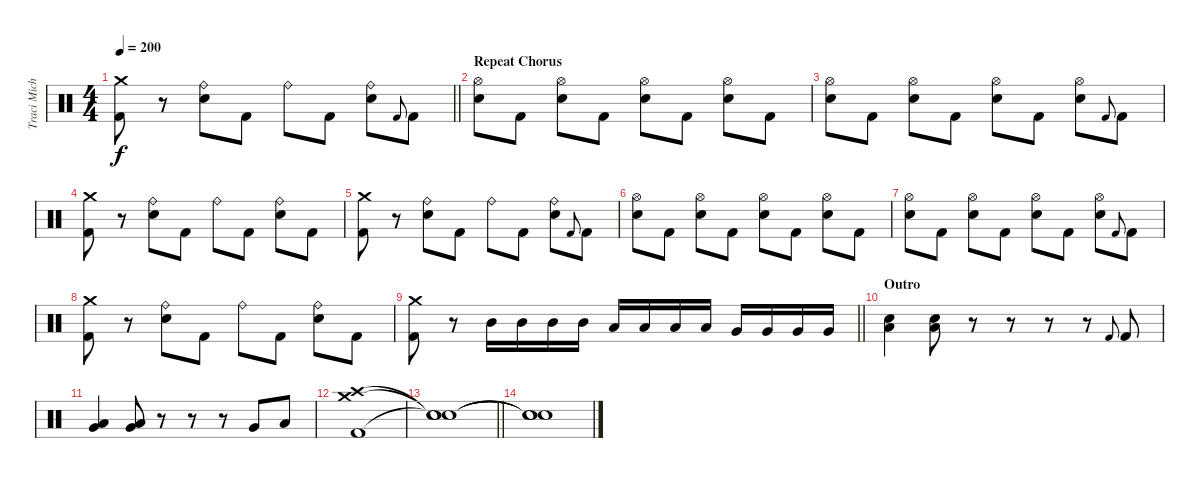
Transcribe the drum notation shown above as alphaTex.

\track ("Traci Michaelz" "Traci Mich") {instrument percussion}
\staff {score}
\articulation defaults
\ts (4 4)
\tempo 200
\clef neutral
\barLineRight lightlight
\ks c
("Crash medium (hit)" "Kick (hit) 2").8{dy f} r.8 ("Ride (bell)" "Snare (hit) 2").8 "Kick (hit) 2".8 "Ride (bell)".8 "Kick (hit) 2".8 ("Ride (bell)" "Snare (hit) 2").8 "Kick (hit) 2".8{gr onbeat} "Kick (hit) 2".8 |
\section ("" "Repeat Chorus")
("Hi-Hat (open)" "Snare (hit) 2").8 "Kick (hit) 2".8 ("Hi-Hat (open)" "Snare (hit) 2").8 "Kick (hit) 2".8 ("Hi-Hat (open)" "Snare (hit) 2").8 "Kick (hit) 2".8 ("Hi-Hat (open)" "Snare (hit) 2").8 "Kick (hit) 2".8 |
("Hi-Hat (open)" "Snare (hit) 2").8 "Kick (hit) 2".8 ("Hi-Hat (open)" "Snare (hit) 2").8 "Kick (hit) 2".8 ("Hi-Hat (open)" "Snare (hit) 2").8 "Kick (hit) 2".8 ("Hi-Hat (open)" "Snare (hit) 2").8 "Kick (hit) 2".8{gr onbeat} "Kick (hit) 2".8 |
("Crash medium (hit)" "Kick (hit) 2").8 r.8 ("Ride (bell)" "Snare (hit) 2").8 "Kick (hit) 2".8 "Ride (bell)".8 "Kick (hit) 2".8 ("Ride (bell)" "Snare (hit) 2").8 "Kick (hit) 2".8 |
("Crash medium (hit)" "Kick (hit) 2").8 r.8 ("Ride (bell)" "Snare (hit) 2").8 "Kick (hit) 2".8 "Ride (bell)".8 "Kick (hit) 2".8 ("Ride (bell)" "Snare (hit) 2").8 "Kick (hit) 2".8{gr onbeat} "Kick (hit) 2".8 |
("Hi-Hat (open)" "Snare (hit) 2").8 "Kick (hit) 2".8 ("Hi-Hat (open)" "Snare (hit) 2").8 "Kick (hit) 2".8 ("Hi-Hat (open)" "Snare (hit) 2").8 "Kick (hit) 2".8 ("Hi-Hat (open)" "Snare (hit) 2").8 "Kick (hit) 2".8 |
("Hi-Hat (open)" "Snare (hit) 2").8 "Kick (hit) 2".8 ("Hi-Hat (open)" "Snare (hit) 2").8 "Kick (hit) 2".8 ("Hi-Hat (open)" "Snare (hit) 2").8 "Kick (hit) 2".8 ("Hi-Hat (open)" "Snare (hit) 2").8 "Kick (hit) 2".8{gr onbeat} "Kick (hit) 2".8 |
("Crash medium (hit)" "Kick (hit) 2").8 r.8 ("Ride (bell)" "Snare (hit) 2").8 "Kick (hit) 2".8 "Ride (bell)".8 "Kick (hit) 2".8 ("Ride (bell)" "Snare (hit) 2").8 "Kick (hit) 2".8 |
\barLineRight lightlight
("Crash medium (hit)" "Kick (hit) 2").8 r.8 "Mid Tom (hit)".16 "Mid Tom (hit)".16 "Mid Tom (hit)".16 "Mid Tom (hit)".16 "Low Tom (hit)".16 "Low Tom (hit)".16 "Low Tom (hit)".16 "Low Tom (hit)".16 "Very Low Tom (hit)".16 "Very Low Tom (hit)".16 "Very Low Tom (hit)".16 "Very Low Tom (hit)".16 |
\section ("" "Outro")
("Snare (hit) 2" "Low Floor Tom (hit)").4 ("Snare (hit) 2" "Low Floor Tom (hit)").8 r.8 r.8 r.8 r.8 "Kick (hit) 2".8{gr onbeat} "Kick (hit) 2".8 |
("Very Low Tom (hit)" "Low Floor Tom (hit)").4 ("Very Low Tom (hit)" "Low Floor Tom (hit)").8 r.8 r.8 r.8 "Very Low Tom (hit)".8 "Low Floor Tom (hit)".8 |
("Crash high (hit)" "Crash medium (hit)" "Kick (hit) 2").1 |
\barLineRight lightlight
("Snare (hit)"{t} "Snare (hit)"{t} "Snare (hit)"{t}).1 |
("Snare (hit)"{t} "Snare (hit)"{t} "Snare (hit)"{t}).1
